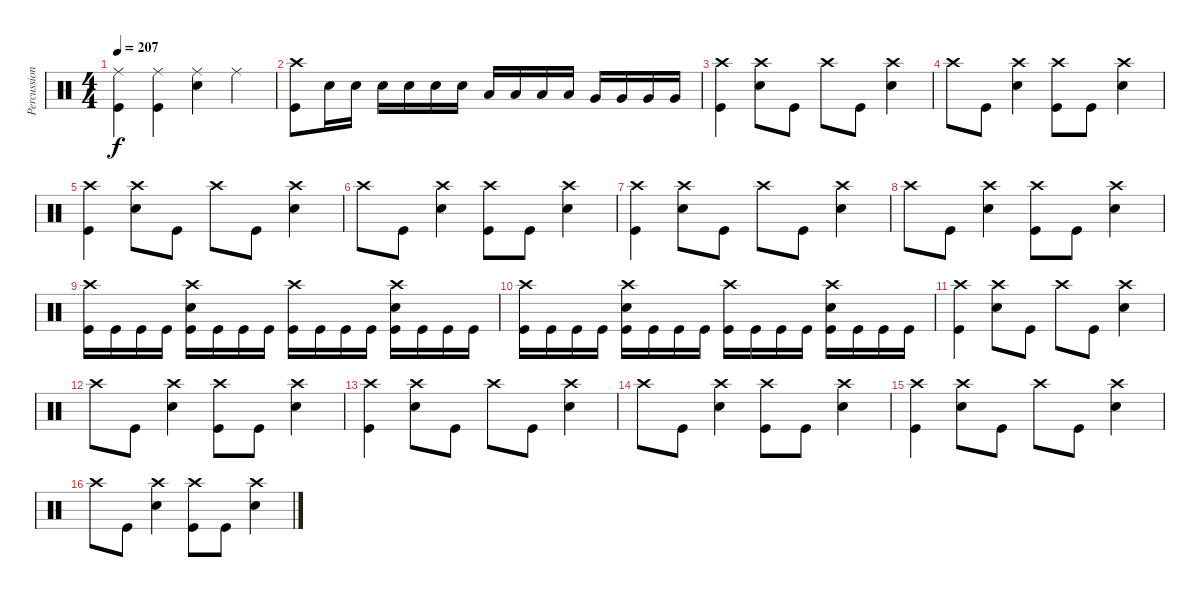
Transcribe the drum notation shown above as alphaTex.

\track ("Percussion" "Percussion") {instrument percussion}
\staff {score}
\articulation defaults
\ts (4 4)
\tempo 207
\clef neutral
\ks c
("Ride (middle)" "Kick (hit)").4{dy f} ("Ride (middle)" "Kick (hit)").4 ("Electric Snare (hit)" "Ride (middle)").4 "Ride (middle)".4 |
("Crash high (hit)" "Kick (hit)").8 "Electric Snare (hit)".16 "Electric Snare (hit)".16 "Electric Snare (hit)".16 "Electric Snare (hit)".16 "Electric Snare (hit)".16 "Electric Snare (hit)".16 "Low Tom (hit)".16 "Low Tom (hit)".16 "Low Tom (hit)".16 "Low Tom (hit)".16 "Very Low Tom (hit)".16 "Very Low Tom (hit)".16 "Very Low Tom (hit)".16 "Very Low Tom (hit)".16 |
("Crash high (hit)" "Kick (hit)").4 ("Crash high (hit)" "Electric Snare (hit)").8 "Kick (hit)".8 "Crash high (hit)".8 "Kick (hit)".8 ("Crash high (hit)" "Electric Snare (hit)").4 |
"Crash high (hit)".8 "Kick (hit)".8 ("Crash high (hit)" "Electric Snare (hit)").4 ("Crash high (hit)" "Kick (hit)").8 "Kick (hit)".8 ("Crash high (hit)" "Electric Snare (hit)").4 |
("Crash high (hit)" "Kick (hit)").4 ("Crash high (hit)" "Electric Snare (hit)").8 "Kick (hit)".8 "Crash high (hit)".8 "Kick (hit)".8 ("Crash high (hit)" "Electric Snare (hit)").4 |
"Crash high (hit)".8 "Kick (hit)".8 ("Crash high (hit)" "Electric Snare (hit)").4 ("Crash high (hit)" "Kick (hit)").8 "Kick (hit)".8 ("Crash high (hit)" "Electric Snare (hit)").4 |
("Crash high (hit)" "Kick (hit)").4 ("Crash high (hit)" "Electric Snare (hit)").8 "Kick (hit)".8 "Crash high (hit)".8 "Kick (hit)".8 ("Crash high (hit)" "Electric Snare (hit)").4 |
"Crash high (hit)".8 "Kick (hit)".8 ("Crash high (hit)" "Electric Snare (hit)").4 ("Crash high (hit)" "Kick (hit)").8 "Kick (hit)".8 ("Crash high (hit)" "Electric Snare (hit)").4 |
("Crash high (hit)" "Kick (hit)").16 "Kick (hit)".16 "Kick (hit)".16 "Kick (hit)".16 ("Crash high (hit)" "Electric Snare (hit)" "Kick (hit)").16 "Kick (hit)".16 "Kick (hit)".16 "Kick (hit)".16 ("Crash high (hit)" "Kick (hit)").16 "Kick (hit)".16 "Kick (hit)".16 "Kick (hit)".16 ("Crash high (hit)" "Electric Snare (hit)" "Kick (hit)").16 "Kick (hit)".16 "Kick (hit)".16 "Kick (hit)".16 |
("Crash high (hit)" "Kick (hit)").16 "Kick (hit)".16 "Kick (hit)".16 "Kick (hit)".16 ("Crash high (hit)" "Electric Snare (hit)" "Kick (hit)").16 "Kick (hit)".16 "Kick (hit)".16 "Kick (hit)".16 ("Crash high (hit)" "Kick (hit)").16 "Kick (hit)".16 "Kick (hit)".16 "Kick (hit)".16 ("Crash high (hit)" "Electric Snare (hit)" "Kick (hit)").16 "Kick (hit)".16 "Kick (hit)".16 "Kick (hit)".16 |
("Crash high (hit)" "Kick (hit)").4 ("Crash high (hit)" "Electric Snare (hit)").8 "Kick (hit)".8 "Crash high (hit)".8 "Kick (hit)".8 ("Crash high (hit)" "Electric Snare (hit)").4 |
"Crash high (hit)".8 "Kick (hit)".8 ("Crash high (hit)" "Electric Snare (hit)").4 ("Crash high (hit)" "Kick (hit)").8 "Kick (hit)".8 ("Crash high (hit)" "Electric Snare (hit)").4 |
("Crash high (hit)" "Kick (hit)").4 ("Crash high (hit)" "Electric Snare (hit)").8 "Kick (hit)".8 "Crash high (hit)".8 "Kick (hit)".8 ("Crash high (hit)" "Electric Snare (hit)").4 |
"Crash high (hit)".8 "Kick (hit)".8 ("Crash high (hit)" "Electric Snare (hit)").4 ("Crash high (hit)" "Kick (hit)").8 "Kick (hit)".8 ("Crash high (hit)" "Electric Snare (hit)").4 |
("Crash high (hit)" "Kick (hit)").4 ("Crash high (hit)" "Electric Snare (hit)").8 "Kick (hit)".8 "Crash high (hit)".8 "Kick (hit)".8 ("Crash high (hit)" "Electric Snare (hit)").4 |
"Crash high (hit)".8 "Kick (hit)".8 ("Crash high (hit)" "Electric Snare (hit)").4 ("Crash high (hit)" "Kick (hit)").8 "Kick (hit)".8 ("Crash high (hit)" "Electric Snare (hit)").4
